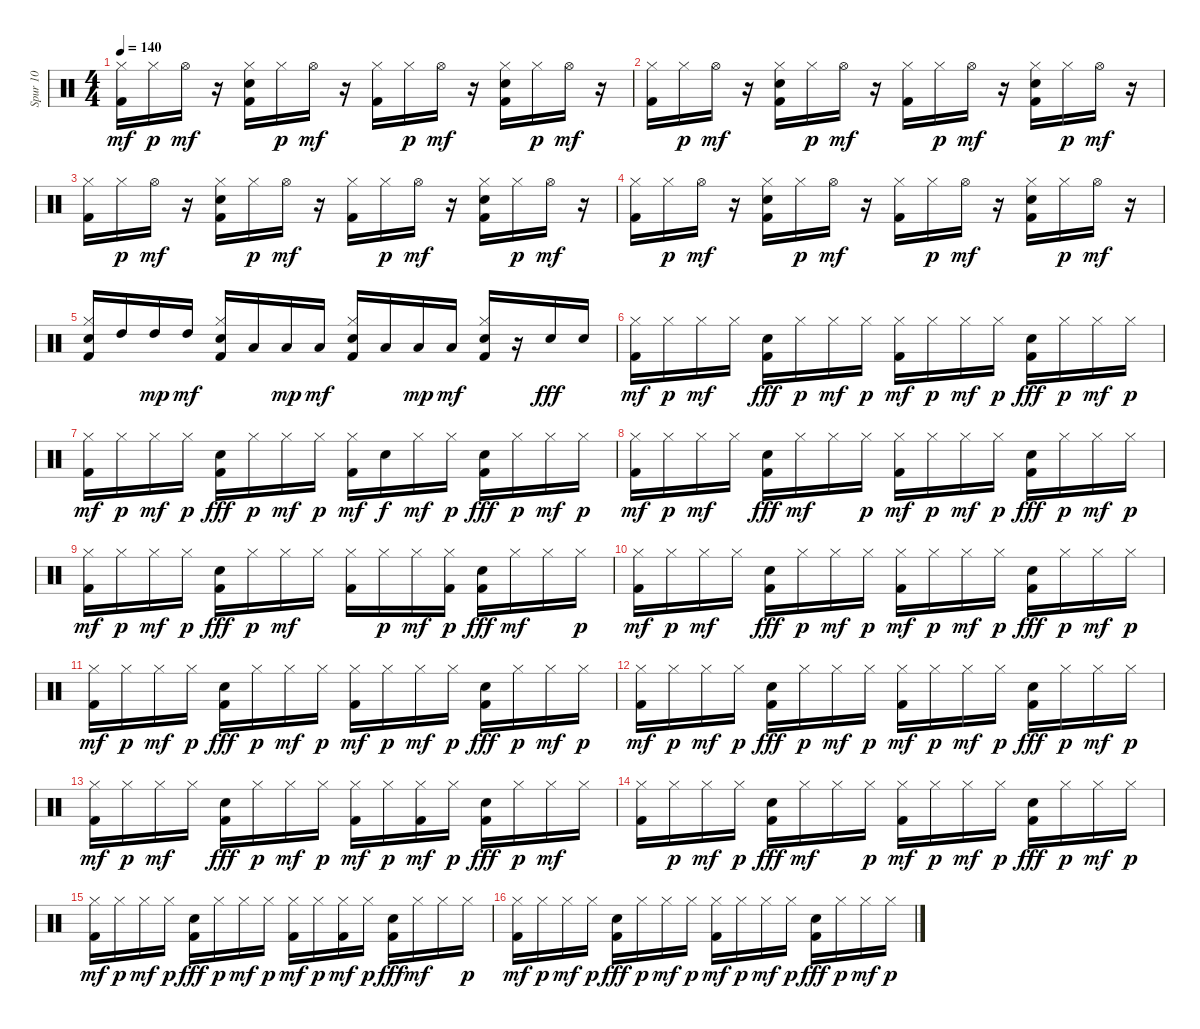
\track ("Spur 10" "Spur 10") {instrument percussion}
\staff {score}
\articulation defaults
\ts (4 4)
\tempo 140
\clef neutral
\ks c
("Kick (hit) 2" "Hi-Hat (closed)").16{dy mf} "Hi-Hat (closed)".16{dy p} "Hi-Hat (open)".16{dy mf} r.16 ("Kick (hit) 2" "Snare (hit) 2" "Hi-Hat (closed)").16 "Hi-Hat (closed)".16{dy p} "Hi-Hat (open)".16{dy mf} r.16 ("Kick (hit) 2" "Hi-Hat (closed)").16 "Hi-Hat (closed)".16{dy p} "Hi-Hat (open)".16{dy mf} r.16 ("Kick (hit) 2" "Snare (hit) 2" "Hi-Hat (closed)").16 "Hi-Hat (closed)".16{dy p} "Hi-Hat (open)".16{dy mf} r.16 |
("Kick (hit) 2" "Hi-Hat (closed)").16 "Hi-Hat (closed)".16{dy p} "Hi-Hat (open)".16{dy mf} r.16 ("Kick (hit) 2" "Snare (hit) 2" "Hi-Hat (closed)").16 "Hi-Hat (closed)".16{dy p} "Hi-Hat (open)".16{dy mf} r.16 ("Kick (hit) 2" "Hi-Hat (closed)").16 "Hi-Hat (closed)".16{dy p} "Hi-Hat (open)".16{dy mf} r.16 ("Kick (hit) 2" "Snare (hit) 2" "Hi-Hat (closed)").16 "Hi-Hat (closed)".16{dy p} "Hi-Hat (open)".16{dy mf} r.16 |
("Kick (hit) 2" "Hi-Hat (closed)").16 "Hi-Hat (closed)".16{dy p} "Hi-Hat (open)".16{dy mf} r.16 ("Kick (hit) 2" "Snare (hit) 2" "Hi-Hat (closed)").16 "Hi-Hat (closed)".16{dy p} "Hi-Hat (open)".16{dy mf} r.16 ("Kick (hit) 2" "Hi-Hat (closed)").16 "Hi-Hat (closed)".16{dy p} "Hi-Hat (open)".16{dy mf} r.16 ("Kick (hit) 2" "Snare (hit) 2" "Hi-Hat (closed)").16 "Hi-Hat (closed)".16{dy p} "Hi-Hat (open)".16{dy mf} r.16 |
("Kick (hit) 2" "Hi-Hat (closed)").16 "Hi-Hat (closed)".16{dy p} "Hi-Hat (open)".16{dy mf} r.16 ("Kick (hit) 2" "Snare (hit) 2" "Hi-Hat (closed)").16 "Hi-Hat (closed)".16{dy p} "Hi-Hat (open)".16{dy mf} r.16 ("Kick (hit) 2" "Hi-Hat (closed)").16 "Hi-Hat (closed)".16{dy p} "Hi-Hat (open)".16{dy mf} r.16 ("Kick (hit) 2" "Snare (hit) 2" "Hi-Hat (closed)").16 "Hi-Hat (closed)".16{dy p} "Hi-Hat (open)".16{dy mf} r.16 |
("Kick (hit) 2" "Snare (hit) 2" "Hi-Hat (closed)").16 "High Tom (hit)".16 "High Tom (hit)".16{dy mp} "High Tom (hit)".16{dy mf} ("Kick (hit) 2" "Snare (hit) 2" "Hi-Hat (closed)").16 "Low Tom (hit)".16 "Low Tom (hit)".16{dy mp} "Low Tom (hit)".16{dy mf} ("Kick (hit) 2" "Snare (hit) 2" "Hi-Hat (closed)").16 "Low Floor Tom (hit)".16 "Low Floor Tom (hit)".16{dy mp} "Low Floor Tom (hit)".16{dy mf} ("Kick (hit) 2" "Snare (hit) 2" "Hi-Hat (closed)").16 r.16 "Snare (hit) 2".16{dy fff} "Snare (hit) 2".16 |
("Kick (hit) 2" "Hi-Hat (closed)").16{dy mf} "Hi-Hat (closed)".16{dy p} "Hi-Hat (closed)".16{dy mf} "Hi-Hat (closed)".16 ("Kick (hit) 2" "Snare (hit) 2").16{dy fff} "Hi-Hat (closed)".16{dy p} "Hi-Hat (closed)".16{dy mf} "Hi-Hat (closed)".16{dy p} ("Kick (hit) 2" "Hi-Hat (closed)").16{dy mf} "Hi-Hat (closed)".16{dy p} "Hi-Hat (closed)".16{dy mf} "Hi-Hat (closed)".16{dy p} ("Kick (hit) 2" "Snare (hit) 2").16{dy fff} "Hi-Hat (closed)".16{dy p} "Hi-Hat (closed)".16{dy mf} "Hi-Hat (closed)".16{dy p} |
("Kick (hit) 2" "Hi-Hat (closed)").16{dy mf} "Hi-Hat (closed)".16{dy p} "Hi-Hat (closed)".16{dy mf} "Hi-Hat (closed)".16{dy p} ("Kick (hit) 2" "Snare (hit) 2").16{dy fff} "Hi-Hat (closed)".16{dy p} "Hi-Hat (closed)".16{dy mf} "Hi-Hat (closed)".16{dy p} ("Kick (hit) 2" "Hi-Hat (closed)").16{dy mf} "Snare (hit) 2".16{dy f} "Hi-Hat (closed)".16{dy mf} "Hi-Hat (closed)".16{dy p} ("Kick (hit) 2" "Snare (hit) 2").16{dy fff} "Hi-Hat (closed)".16{dy p} "Hi-Hat (closed)".16{dy mf} "Hi-Hat (closed)".16{dy p} |
("Kick (hit) 2" "Hi-Hat (closed)").16{dy mf} "Hi-Hat (closed)".16{dy p} "Hi-Hat (closed)".16{dy mf} "Hi-Hat (closed)".16 ("Kick (hit) 2" "Snare (hit) 2").16{dy fff} "Hi-Hat (closed)".16{dy mf} "Hi-Hat (closed)".16 "Hi-Hat (closed)".16{dy p} ("Kick (hit) 2" "Hi-Hat (closed)").16{dy mf} "Hi-Hat (closed)".16{dy p} "Hi-Hat (closed)".16{dy mf} "Hi-Hat (closed)".16{dy p} ("Kick (hit) 2" "Snare (hit) 2").16{dy fff} "Hi-Hat (closed)".16{dy p} "Hi-Hat (closed)".16{dy mf} "Hi-Hat (closed)".16{dy p} |
("Kick (hit) 2" "Hi-Hat (closed)").16{dy mf} "Hi-Hat (closed)".16{dy p} "Hi-Hat (closed)".16{dy mf} "Hi-Hat (closed)".16{dy p} ("Kick (hit) 2" "Snare (hit) 2").16{dy fff} "Hi-Hat (closed)".16{dy p} "Hi-Hat (closed)".16{dy mf} "Hi-Hat (closed)".16 ("Kick (hit) 2" "Hi-Hat (closed)").16 "Hi-Hat (closed)".16{dy p} "Hi-Hat (closed)".16{dy mf} ("Kick (hit) 2" "Hi-Hat (closed)").16{dy p} ("Kick (hit) 2" "Snare (hit) 2").16{dy fff} "Hi-Hat (closed)".16{dy mf} "Hi-Hat (closed)".16 "Hi-Hat (closed)".16{dy p} |
("Kick (hit) 2" "Hi-Hat (closed)").16{dy mf} "Hi-Hat (closed)".16{dy p} "Hi-Hat (closed)".16{dy mf} "Hi-Hat (closed)".16 ("Kick (hit) 2" "Snare (hit) 2").16{dy fff} "Hi-Hat (closed)".16{dy p} "Hi-Hat (closed)".16{dy mf} "Hi-Hat (closed)".16{dy p} ("Kick (hit) 2" "Hi-Hat (closed)").16{dy mf} "Hi-Hat (closed)".16{dy p} "Hi-Hat (closed)".16{dy mf} "Hi-Hat (closed)".16{dy p} ("Kick (hit) 2" "Snare (hit) 2").16{dy fff} "Hi-Hat (closed)".16{dy p} "Hi-Hat (closed)".16{dy mf} "Hi-Hat (closed)".16{dy p} |
("Kick (hit) 2" "Hi-Hat (closed)").16{dy mf} "Hi-Hat (closed)".16{dy p} "Hi-Hat (closed)".16{dy mf} "Hi-Hat (closed)".16{dy p} ("Kick (hit) 2" "Snare (hit) 2").16{dy fff} "Hi-Hat (closed)".16{dy p} "Hi-Hat (closed)".16{dy mf} "Hi-Hat (closed)".16{dy p} ("Kick (hit) 2" "Hi-Hat (closed)").16{dy mf} "Hi-Hat (closed)".16{dy p} "Hi-Hat (closed)".16{dy mf} "Hi-Hat (closed)".16{dy p} ("Kick (hit) 2" "Snare (hit) 2").16{dy fff} "Hi-Hat (closed)".16{dy p} "Hi-Hat (closed)".16{dy mf} "Hi-Hat (closed)".16{dy p} |
("Kick (hit) 2" "Hi-Hat (closed)").16{dy mf} "Hi-Hat (closed)".16{dy p} "Hi-Hat (closed)".16{dy mf} "Hi-Hat (closed)".16{dy p} ("Kick (hit) 2" "Snare (hit) 2").16{dy fff} "Hi-Hat (closed)".16{dy p} "Hi-Hat (closed)".16{dy mf} "Hi-Hat (closed)".16{dy p} ("Kick (hit) 2" "Hi-Hat (closed)").16{dy mf} "Hi-Hat (closed)".16{dy p} "Hi-Hat (closed)".16{dy mf} "Hi-Hat (closed)".16{dy p} ("Kick (hit) 2" "Snare (hit) 2").16{dy fff} "Hi-Hat (closed)".16{dy p} "Hi-Hat (closed)".16{dy mf} "Hi-Hat (closed)".16{dy p} |
("Kick (hit) 2" "Hi-Hat (closed)").16{dy mf} "Hi-Hat (closed)".16{dy p} "Hi-Hat (closed)".16{dy mf} "Hi-Hat (closed)".16 ("Kick (hit) 2" "Snare (hit) 2").16{dy fff} "Hi-Hat (closed)".16{dy p} "Hi-Hat (closed)".16{dy mf} "Hi-Hat (closed)".16{dy p} ("Kick (hit) 2" "Hi-Hat (closed)").16{dy mf} "Hi-Hat (closed)".16{dy p} ("Kick (hit) 2" "Hi-Hat (closed)").16{dy mf} "Hi-Hat (closed)".16{dy p} ("Kick (hit) 2" "Snare (hit) 2").16{dy fff} "Hi-Hat (closed)".16{dy p} "Hi-Hat (closed)".16{dy mf} "Hi-Hat (closed)".16 |
("Kick (hit) 2" "Hi-Hat (closed)").16 "Hi-Hat (closed)".16{dy p} "Hi-Hat (closed)".16{dy mf} "Hi-Hat (closed)".16{dy p} ("Kick (hit) 2" "Snare (hit) 2").16{dy fff} "Hi-Hat (closed)".16{dy mf} "Hi-Hat (closed)".16 "Hi-Hat (closed)".16{dy p} ("Kick (hit) 2" "Hi-Hat (closed)").16{dy mf} "Hi-Hat (closed)".16{dy p} "Hi-Hat (closed)".16{dy mf} "Hi-Hat (closed)".16{dy p} ("Kick (hit) 2" "Snare (hit) 2").16{dy fff} "Hi-Hat (closed)".16{dy p} "Hi-Hat (closed)".16{dy mf} "Hi-Hat (closed)".16{dy p} |
("Kick (hit) 2" "Hi-Hat (closed)").16{dy mf} "Hi-Hat (closed)".16{dy p} "Hi-Hat (closed)".16{dy mf} "Hi-Hat (closed)".16{dy p} ("Kick (hit) 2" "Snare (hit) 2").16{dy fff} "Hi-Hat (closed)".16{dy p} "Hi-Hat (closed)".16{dy mf} "Hi-Hat (closed)".16{dy p} ("Kick (hit) 2" "Hi-Hat (closed)").16{dy mf} "Hi-Hat (closed)".16{dy p} ("Kick (hit) 2" "Hi-Hat (closed)").16{dy mf} "Hi-Hat (closed)".16{dy p} ("Kick (hit) 2" "Snare (hit) 2").16{dy fff} "Hi-Hat (closed)".16{dy mf} "Hi-Hat (closed)".16 "Hi-Hat (closed)".16{dy p} |
("Kick (hit) 2" "Hi-Hat (closed)").16{dy mf} "Hi-Hat (closed)".16{dy p} "Hi-Hat (closed)".16{dy mf} "Hi-Hat (closed)".16{dy p} ("Kick (hit) 2" "Snare (hit) 2").16{dy fff} "Hi-Hat (closed)".16{dy p} "Hi-Hat (closed)".16{dy mf} "Hi-Hat (closed)".16{dy p} ("Kick (hit) 2" "Hi-Hat (closed)").16{dy mf} "Hi-Hat (closed)".16{dy p} "Hi-Hat (closed)".16{dy mf} "Hi-Hat (closed)".16{dy p} ("Kick (hit) 2" "Snare (hit) 2").16{dy fff} "Hi-Hat (closed)".16{dy p} "Hi-Hat (closed)".16{dy mf} "Hi-Hat (closed)".16{dy p}
